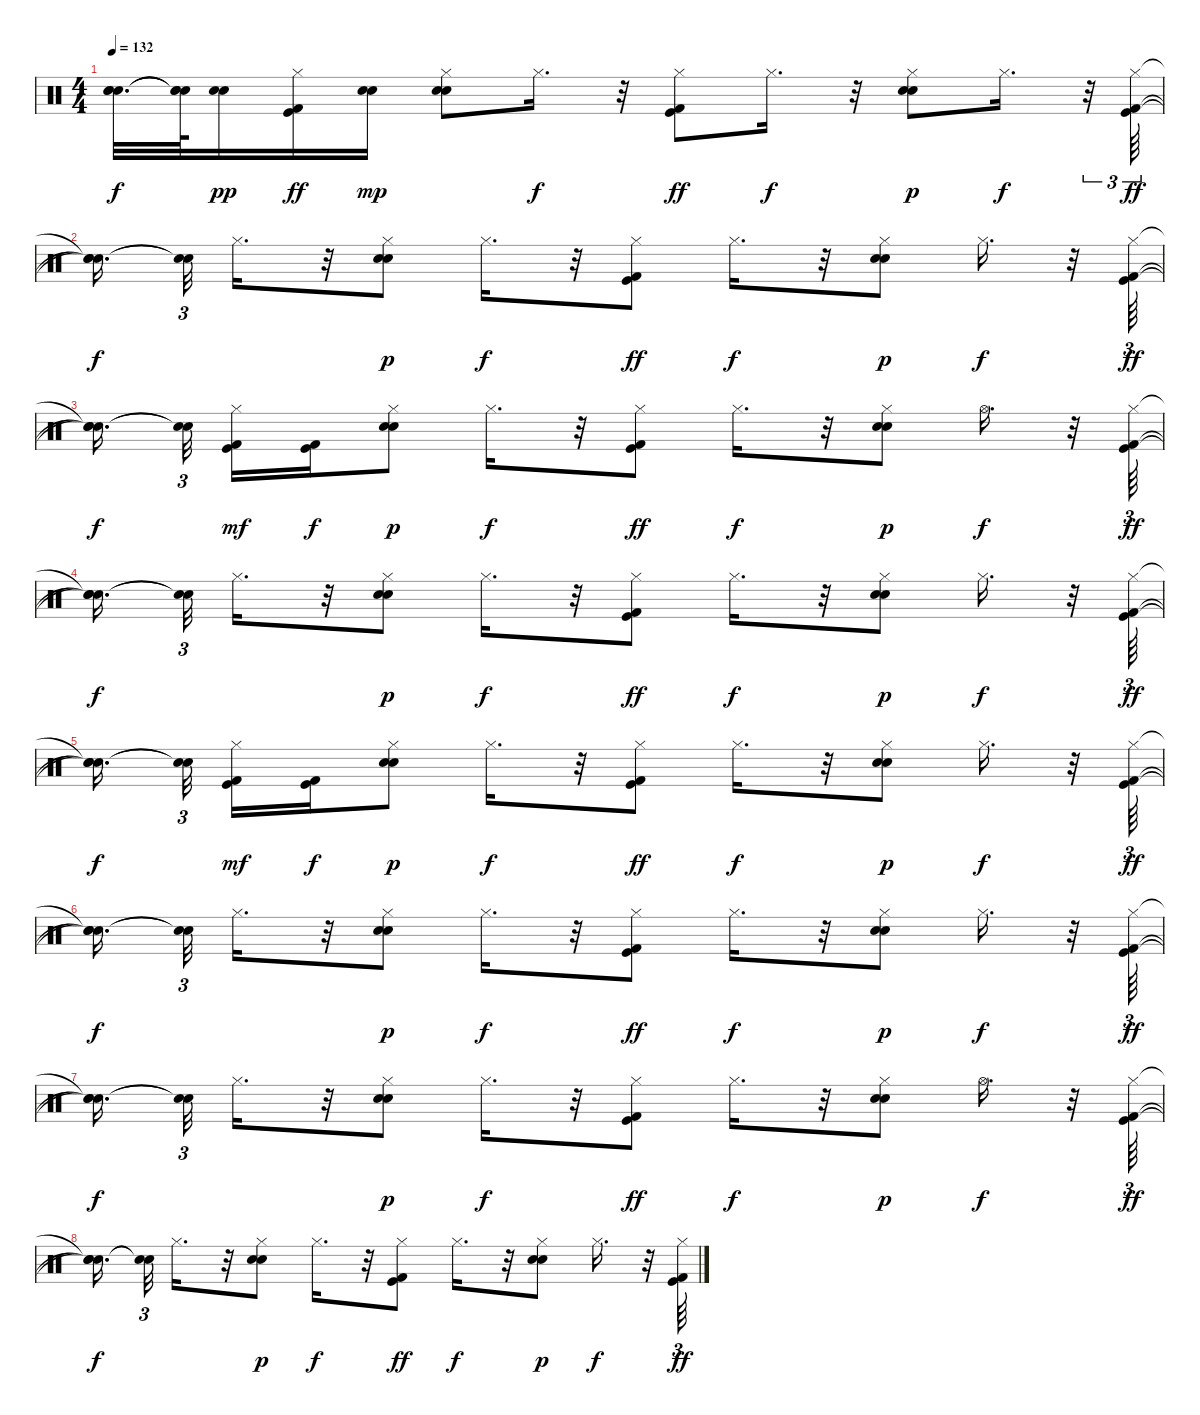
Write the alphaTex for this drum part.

\track "" {instrument percussion}
\staff {score}
\articulation defaults
\ts (4 4)
\tempo 132
\clef neutral
\ks c
("Snare (hit)"{t} "Snare (hit)"{t} "Snare (hit)"{t}).32{d dy f} ("Snare (hit)"{t} "Snare (hit)"{t} "Snare (hit)"{t}).64 ("Electric Snare (hit)" "Snare (hit) 2").16{dy pp} ("Kick (hit) 2" "Kick (hit)" "Hi-Hat (closed)").16{dy ff} ("Snare (hit) 2" "Electric Snare (hit)").16{dy mp} ("Electric Snare (hit)" "Snare (hit) 2" "Hi-Hat (closed)").8 "Hi-Hat (closed)".16{d dy f} r.32 ("Kick (hit) 2" "Kick (hit)" "Hi-Hat (closed)").8{dy ff} "Hi-Hat (closed)".16{d dy f} r.32 ("Electric Snare (hit)" "Snare (hit) 2" "Hi-Hat (closed)").8{dy p} "Hi-Hat (closed)".16{d dy f} r.32{tu (3 2)} ("Kick (hit) 2" "Kick (hit)" "Hi-Hat (closed)").64{tu (3 2) dy ff} |
("Snare (hit)"{t} "Snare (hit)"{t} "Snare (hit)"{t}).16{d dy f beam splitsecondary} ("Snare (hit)"{t} "Snare (hit)"{t}).32{tu (3 2)} "Hi-Hat (closed)".16{d} r.32 ("Electric Snare (hit)" "Snare (hit) 2" "Hi-Hat (closed)").8{dy p} "Hi-Hat (closed)".16{d dy f} r.32 ("Kick (hit) 2" "Kick (hit)" "Hi-Hat (closed)").8{dy ff} "Hi-Hat (closed)".16{d dy f} r.32 ("Electric Snare (hit)" "Snare (hit) 2" "Hi-Hat (closed)").8{dy p} "Hi-Hat (closed)".16{d dy f} r.32 ("Kick (hit) 2" "Kick (hit)" "Hi-Hat (closed)").64{tu (3 2) dy ff} |
("Snare (hit)"{t} "Snare (hit)"{t} "Snare (hit)"{t}).16{d dy f beam splitsecondary} ("Snare (hit)"{t} "Snare (hit)"{t}).32{tu (3 2) beam splitsecondary} ("Kick (hit) 2" "Kick (hit)" "Hi-Hat (closed)").16{dy mf} ("Kick (hit)" "Kick (hit) 2").16{dy f} ("Electric Snare (hit)" "Snare (hit) 2" "Hi-Hat (closed)").8{dy p} "Hi-Hat (closed)".16{d dy f} r.32 ("Kick (hit) 2" "Kick (hit)" "Hi-Hat (closed)").8{dy ff} "Hi-Hat (closed)".16{d dy f} r.32 ("Electric Snare (hit)" "Snare (hit) 2" "Hi-Hat (closed)").8{dy p} "Hi-Hat (open)".16{d dy f} r.32 ("Kick (hit) 2" "Kick (hit)" "Hi-Hat (closed)").64{tu (3 2) dy ff} |
("Snare (hit)"{t} "Snare (hit)"{t} "Snare (hit)"{t}).16{d dy f beam splitsecondary} ("Snare (hit)"{t} "Snare (hit)"{t}).32{tu (3 2)} "Hi-Hat (closed)".16{d} r.32 ("Electric Snare (hit)" "Snare (hit) 2" "Hi-Hat (closed)").8{dy p} "Hi-Hat (closed)".16{d dy f} r.32 ("Kick (hit) 2" "Kick (hit)" "Hi-Hat (closed)").8{dy ff} "Hi-Hat (closed)".16{d dy f} r.32 ("Electric Snare (hit)" "Snare (hit) 2" "Hi-Hat (closed)").8{dy p} "Hi-Hat (closed)".16{d dy f} r.32 ("Kick (hit) 2" "Kick (hit)" "Hi-Hat (closed)").64{tu (3 2) dy ff} |
("Snare (hit)"{t} "Snare (hit)"{t} "Snare (hit)"{t}).16{d dy f beam splitsecondary} ("Snare (hit)"{t} "Snare (hit)"{t}).32{tu (3 2) beam splitsecondary} ("Kick (hit) 2" "Kick (hit)" "Hi-Hat (closed)").16{dy mf} ("Kick (hit)" "Kick (hit) 2").16{dy f} ("Electric Snare (hit)" "Snare (hit) 2" "Hi-Hat (closed)").8{dy p} "Hi-Hat (closed)".16{d dy f} r.32 ("Kick (hit) 2" "Kick (hit)" "Hi-Hat (closed)").8{dy ff} "Hi-Hat (closed)".16{d dy f} r.32 ("Electric Snare (hit)" "Snare (hit) 2" "Hi-Hat (closed)").8{dy p} "Hi-Hat (closed)".16{d dy f} r.32 ("Kick (hit) 2" "Kick (hit)" "Hi-Hat (closed)").64{tu (3 2) dy ff} |
("Snare (hit)"{t} "Snare (hit)"{t} "Snare (hit)"{t}).16{d dy f beam splitsecondary} ("Snare (hit)"{t} "Snare (hit)"{t}).32{tu (3 2)} "Hi-Hat (closed)".16{d} r.32 ("Electric Snare (hit)" "Snare (hit) 2" "Hi-Hat (closed)").8{dy p} "Hi-Hat (closed)".16{d dy f} r.32 ("Kick (hit) 2" "Kick (hit)" "Hi-Hat (closed)").8{dy ff} "Hi-Hat (closed)".16{d dy f} r.32 ("Electric Snare (hit)" "Snare (hit) 2" "Hi-Hat (closed)").8{dy p} "Hi-Hat (closed)".16{d dy f} r.32 ("Kick (hit) 2" "Kick (hit)" "Hi-Hat (closed)").64{tu (3 2) dy ff} |
("Snare (hit)"{t} "Snare (hit)"{t} "Snare (hit)"{t}).16{d dy f beam splitsecondary} ("Snare (hit)"{t} "Snare (hit)"{t}).32{tu (3 2)} "Hi-Hat (closed)".16{d} r.32 ("Electric Snare (hit)" "Snare (hit) 2" "Hi-Hat (closed)").8{dy p} "Hi-Hat (closed)".16{d dy f} r.32 ("Kick (hit) 2" "Kick (hit)" "Hi-Hat (closed)").8{dy ff} "Hi-Hat (closed)".16{d dy f} r.32 ("Electric Snare (hit)" "Snare (hit) 2" "Hi-Hat (closed)").8{dy p} "Hi-Hat (open)".16{d dy f} r.32 ("Kick (hit) 2" "Kick (hit)" "Hi-Hat (closed)").64{tu (3 2) dy ff} |
("Snare (hit)"{t} "Snare (hit)"{t} "Snare (hit)"{t}).16{d dy f beam splitsecondary} ("Snare (hit)"{t} "Snare (hit)"{t}).32{tu (3 2)} "Hi-Hat (closed)".16{d} r.32 ("Electric Snare (hit)" "Snare (hit) 2" "Hi-Hat (closed)").8{dy p} "Hi-Hat (closed)".16{d dy f} r.32 ("Kick (hit) 2" "Kick (hit)" "Hi-Hat (closed)").8{dy ff} "Hi-Hat (closed)".16{d dy f} r.32 ("Electric Snare (hit)" "Snare (hit) 2" "Hi-Hat (closed)").8{dy p} "Hi-Hat (closed)".16{d dy f} r.32 ("Kick (hit) 2" "Kick (hit)" "Hi-Hat (closed)").64{tu (3 2) dy ff}
